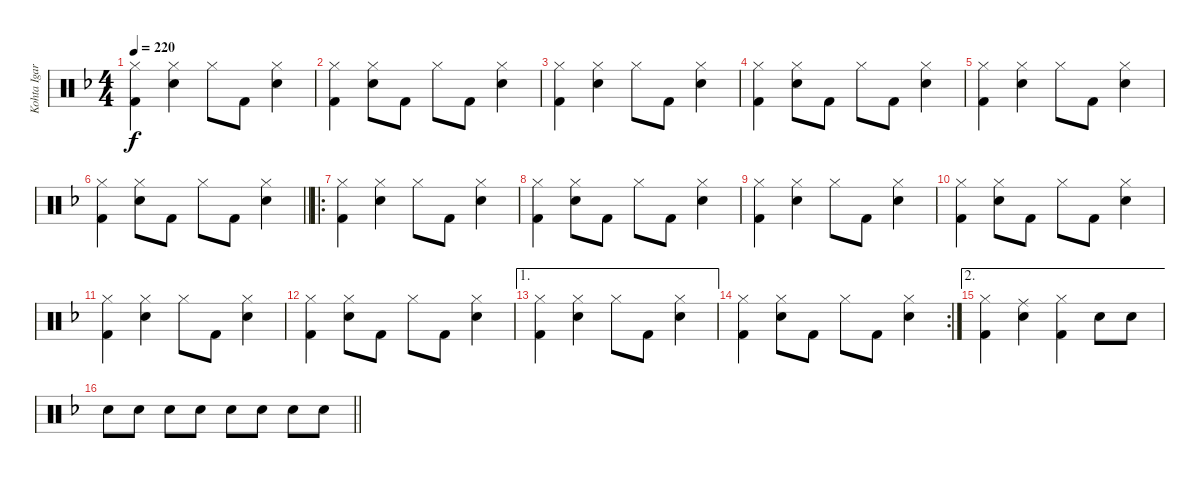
\track ("Kohta Igarashi" "Kohta Igar") {instrument percussion}
\staff {score}
\articulation defaults
\ts (4 4)
\tempo 220
\clef neutral
\ks f
("Hi-Hat (closed)" "Kick (hit) 2").4{dy f} ("Hi-Hat (closed)" "Electric Snare (hit)").4 "Hi-Hat (closed)".8 "Kick (hit) 2".8 ("Hi-Hat (closed)" "Electric Snare (hit)").4 |
("Hi-Hat (closed)" "Kick (hit) 2").4 ("Hi-Hat (closed)" "Electric Snare (hit)").8 "Kick (hit) 2".8 "Hi-Hat (closed)".8 "Kick (hit) 2".8 ("Hi-Hat (closed)" "Electric Snare (hit)").4 |
("Hi-Hat (closed)" "Kick (hit) 2").4 ("Hi-Hat (closed)" "Electric Snare (hit)").4 "Hi-Hat (closed)".8 "Kick (hit) 2".8 ("Hi-Hat (closed)" "Electric Snare (hit)").4 |
("Hi-Hat (closed)" "Kick (hit) 2").4 ("Hi-Hat (closed)" "Electric Snare (hit)").8 "Kick (hit) 2".8 "Hi-Hat (closed)".8 "Kick (hit) 2".8 ("Hi-Hat (closed)" "Electric Snare (hit)").4 |
("Hi-Hat (closed)" "Kick (hit) 2").4 ("Hi-Hat (closed)" "Electric Snare (hit)").4 "Hi-Hat (closed)".8 "Kick (hit) 2".8 ("Hi-Hat (closed)" "Electric Snare (hit)").4 |
\barLineRight lightlight
("Hi-Hat (closed)" "Kick (hit) 2").4 ("Hi-Hat (closed)" "Electric Snare (hit)").8 "Kick (hit) 2".8 "Hi-Hat (closed)".8 "Kick (hit) 2".8 ("Hi-Hat (closed)" "Electric Snare (hit)").4 |
\ro
("Hi-Hat (closed)" "Kick (hit) 2").4 ("Hi-Hat (closed)" "Electric Snare (hit)").4 "Hi-Hat (closed)".8 "Kick (hit) 2".8 ("Hi-Hat (closed)" "Electric Snare (hit)").4 |
("Hi-Hat (closed)" "Kick (hit) 2").4 ("Hi-Hat (closed)" "Electric Snare (hit)").8 "Kick (hit) 2".8 "Hi-Hat (closed)".8 "Kick (hit) 2".8 ("Hi-Hat (closed)" "Electric Snare (hit)").4 |
("Hi-Hat (closed)" "Kick (hit) 2").4 ("Hi-Hat (closed)" "Electric Snare (hit)").4 "Hi-Hat (closed)".8 "Kick (hit) 2".8 ("Hi-Hat (closed)" "Electric Snare (hit)").4 |
("Hi-Hat (closed)" "Kick (hit) 2").4 ("Hi-Hat (closed)" "Electric Snare (hit)").8 "Kick (hit) 2".8 "Hi-Hat (closed)".8 "Kick (hit) 2".8 ("Hi-Hat (closed)" "Electric Snare (hit)").4 |
("Hi-Hat (closed)" "Kick (hit) 2").4 ("Hi-Hat (closed)" "Electric Snare (hit)").4 "Hi-Hat (closed)".8 "Kick (hit) 2".8 ("Hi-Hat (closed)" "Electric Snare (hit)").4 |
("Hi-Hat (closed)" "Kick (hit) 2").4 ("Hi-Hat (closed)" "Electric Snare (hit)").8 "Kick (hit) 2".8 "Hi-Hat (closed)".8 "Kick (hit) 2".8 ("Hi-Hat (closed)" "Electric Snare (hit)").4 |
\ae 1
("Hi-Hat (closed)" "Kick (hit) 2").4 ("Hi-Hat (closed)" "Electric Snare (hit)").4 "Hi-Hat (closed)".8 "Kick (hit) 2".8 ("Hi-Hat (closed)" "Electric Snare (hit)").4 |
\rc 2
("Hi-Hat (closed)" "Kick (hit) 2").4 ("Hi-Hat (closed)" "Electric Snare (hit)").8 "Kick (hit) 2".8 "Hi-Hat (closed)".8 "Kick (hit) 2".8 ("Hi-Hat (closed)" "Electric Snare (hit)").4 |
\ae 2
("Hi-Hat (closed)" "Kick (hit) 2").4 ("Ride (middle)" "Electric Snare (hit)").4 ("Hi-Hat (closed)" "Kick (hit) 2").4 "Electric Snare (hit)".8 "Electric Snare (hit)".8 |
\barLineRight lightlight "Electric Snare (hit)".8 "Electric Snare (hit)".8 "Electric Snare (hit)".8 "Electric Snare (hit)".8 "Electric Snare (hit)".8 "Electric Snare (hit)".8 "Electric Snare (hit)".8 "Electric Snare (hit)".8
